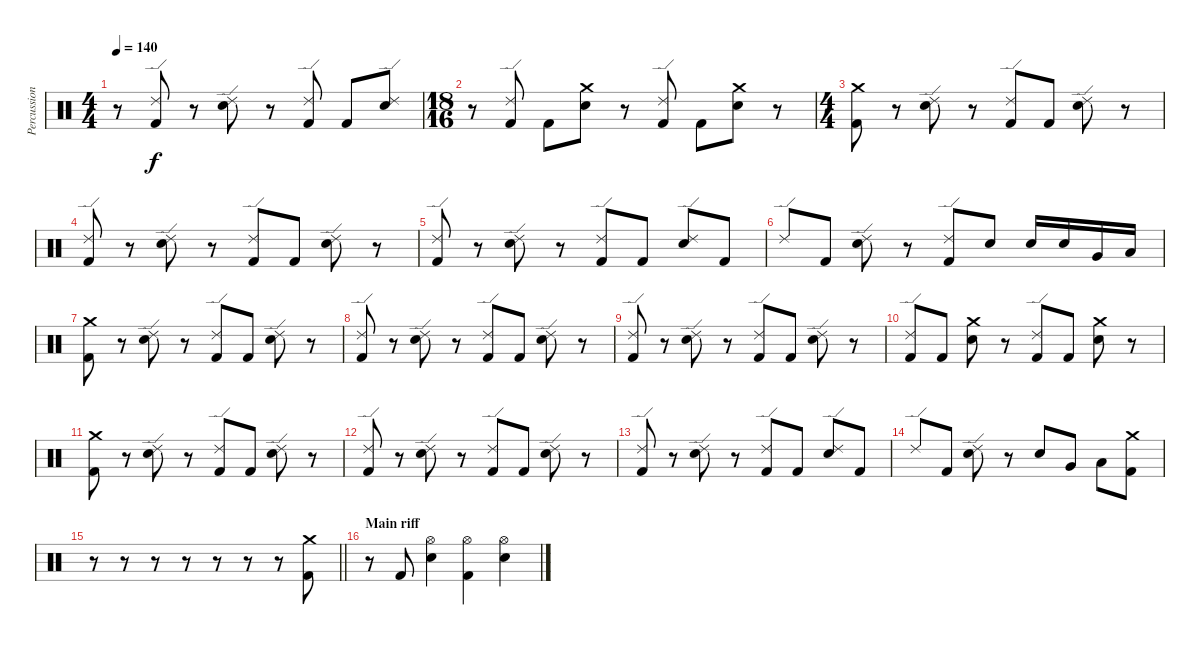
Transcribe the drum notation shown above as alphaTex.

\track ("Percussion" "Percussion") {instrument percussion}
\staff {score}
\articulation defaults
\ts (4 4)
\tempo 140
\clef neutral
\ks c
r.8{dy f} ("Ride (edge) 2" "Kick (hit) 2").8 r.8 ("Ride (edge) 2" "Electric Snare (hit)").8 r.8 ("Ride (edge) 2" "Kick (hit) 2").8 "Kick (hit) 2".8 ("Ride (edge) 2" "Electric Snare (hit)").8 |
\ts (18 16)
r.8 ("Ride (edge) 2" "Kick (hit) 2").8 "Kick (hit) 2".8 ("Crash medium (hit)" "Electric Snare (hit)").8 r.8 ("Ride (edge) 2" "Kick (hit) 2").8 "Kick (hit) 2".8 ("Crash medium (hit)" "Electric Snare (hit)").8 r.8 |
\ts (4 4)
("Crash medium (hit)" "Kick (hit) 2").8 r.8 ("Ride (edge) 2" "Electric Snare (hit)").8 r.8 ("Ride (edge) 2" "Kick (hit) 2").8 "Kick (hit) 2".8 ("Ride (edge) 2" "Electric Snare (hit)").8 r.8 |
("Ride (edge) 2" "Kick (hit) 2").8 r.8 ("Ride (edge) 2" "Electric Snare (hit)").8 r.8 ("Ride (edge) 2" "Kick (hit) 2").8 "Kick (hit) 2".8 ("Ride (edge) 2" "Electric Snare (hit)").8 r.8 |
("Ride (edge) 2" "Kick (hit) 2").8 r.8 ("Ride (edge) 2" "Electric Snare (hit)").8 r.8 ("Ride (edge) 2" "Kick (hit) 2").8 "Kick (hit) 2".8 ("Ride (edge) 2" "Electric Snare (hit)").8 "Kick (hit) 2".8 |
"Ride (edge) 2".8 "Kick (hit) 2".8 ("Ride (edge) 2" "Electric Snare (hit)").8 r.8 ("Ride (edge) 2" "Kick (hit) 2").8 "Electric Snare (hit)".8 "Electric Snare (hit)".16 "Electric Snare (hit)".16 "Very Low Tom (hit)".16 "Low Tom (hit)".16 |
("Crash medium (hit)" "Kick (hit) 2").8 r.8 ("Ride (edge) 2" "Electric Snare (hit)").8 r.8 ("Ride (edge) 2" "Kick (hit) 2").8 "Kick (hit) 2".8 ("Ride (edge) 2" "Electric Snare (hit)").8 r.8 |
("Ride (edge) 2" "Kick (hit) 2").8 r.8 ("Ride (edge) 2" "Electric Snare (hit)").8 r.8 ("Ride (edge) 2" "Kick (hit) 2").8 "Kick (hit) 2".8 ("Ride (edge) 2" "Electric Snare (hit)").8 r.8 |
("Ride (edge) 2" "Kick (hit) 2").8 r.8 ("Ride (edge) 2" "Electric Snare (hit)").8 r.8 ("Ride (edge) 2" "Kick (hit) 2").8 "Kick (hit) 2".8 ("Ride (edge) 2" "Electric Snare (hit)").8 r.8 |
("Ride (edge) 2" "Kick (hit) 2").8 "Kick (hit) 2".8 ("Crash medium (hit)" "Electric Snare (hit)").8 r.8 ("Ride (edge) 2" "Kick (hit) 2").8 "Kick (hit) 2".8 ("Crash medium (hit)" "Electric Snare (hit)").8 r.8 |
("Crash medium (hit)" "Kick (hit) 2").8 r.8 ("Ride (edge) 2" "Electric Snare (hit)").8 r.8 ("Ride (edge) 2" "Kick (hit) 2").8 "Kick (hit) 2".8 ("Ride (edge) 2" "Electric Snare (hit)").8 r.8 |
("Ride (edge) 2" "Kick (hit) 2").8 r.8 ("Ride (edge) 2" "Electric Snare (hit)").8 r.8 ("Ride (edge) 2" "Kick (hit) 2").8 "Kick (hit) 2".8 ("Ride (edge) 2" "Electric Snare (hit)").8 r.8 |
("Ride (edge) 2" "Kick (hit) 2").8 r.8 ("Ride (edge) 2" "Electric Snare (hit)").8 r.8 ("Ride (edge) 2" "Kick (hit) 2").8 "Kick (hit) 2".8 ("Ride (edge) 2" "Electric Snare (hit)").8 "Kick (hit) 2".8 |
"Ride (edge) 2".8 "Kick (hit) 2".8 ("Ride (edge) 2" "Electric Snare (hit)").8 r.8 "Electric Snare (hit)".8 "Very Low Tom (hit)".8 "Low Tom (hit)".8 ("Kick (hit) 2" "Crash medium (hit)").8 |
\barLineRight lightlight
r.8 r.8 r.8 r.8 r.8 r.8 r.8 ("Crash medium (hit)" "Kick (hit) 2").8 |
\section ("" "Main riff")
r.8 "Kick (hit) 2".8 ("Hi-Hat (open)" "Electric Snare (hit)").4 ("Hi-Hat (open)" "Kick (hit) 2").4 ("Hi-Hat (open)" "Electric Snare (hit)").4
